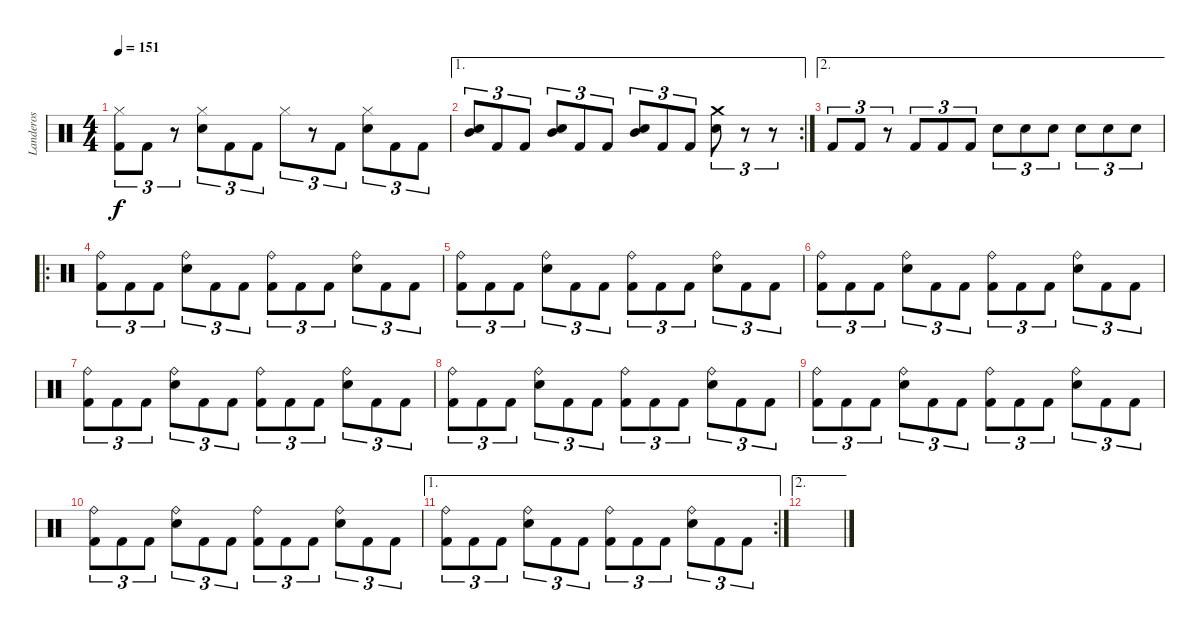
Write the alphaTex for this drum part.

\track ("Landeros" "Landeros") {instrument percussion}
\staff {score}
\articulation defaults
\ts (4 4)
\tempo 151
\clef neutral
\ks c
("Kick (hit) 2" "Hi-Hat (closed)").8{tu (3 2) dy f} "Kick (hit) 2".8{tu (3 2)} r.8{tu (3 2)} ("Electric Snare (hit)" "Hi-Hat (closed)").8{tu (3 2)} "Kick (hit) 2".8{tu (3 2)} "Kick (hit) 2".8{tu (3 2)} "Hi-Hat (closed)".8{tu (3 2)} r.8{tu (3 2)} "Kick (hit) 2".8{tu (3 2)} ("Electric Snare (hit)" "Hi-Hat (closed)").8{tu (3 2)} "Kick (hit) 2".8{tu (3 2)} "Kick (hit) 2".8{tu (3 2)} |
\ae 1
\rc 2
("Electric Snare (hit)" "Mid Tom (hit)").8{tu (3 2)} "Kick (hit) 2".8{tu (3 2)} "Kick (hit) 2".8{tu (3 2)} ("Electric Snare (hit)" "Mid Tom (hit)").8{tu (3 2)} "Kick (hit) 2".8{tu (3 2)} "Kick (hit) 2".8{tu (3 2)} ("Electric Snare (hit)" "Mid Tom (hit)").8{tu (3 2)} "Kick (hit) 2".8{tu (3 2)} "Kick (hit) 2".8{tu (3 2)} ("Electric Snare (hit)" "Crash medium (hit)").8{tu (3 2)} r.8{tu (3 2)} r.8{tu (3 2)} |
\ae 2 "Kick (hit) 2".8{tu (3 2)} "Kick (hit) 2".8{tu (3 2)}
r.8{tu (3 2)} "Kick (hit) 2".8{tu (3 2)} "Kick (hit) 2".8{tu (3 2)} "Kick (hit) 2".8{tu (3 2)} "Electric Snare (hit)".8{tu (3 2)} "Electric Snare (hit)".8{tu (3 2)} "Electric Snare (hit)".8{tu (3 2)} "Electric Snare (hit)".8{tu (3 2)} "Electric Snare (hit)".8{tu (3 2)} "Electric Snare (hit)".8{tu (3 2)} |
\ro
("Kick (hit) 2" "Ride (bell)").8{tu (3 2)} "Kick (hit) 2".8{tu (3 2)} "Kick (hit) 2".8{tu (3 2)} ("Electric Snare (hit)" "Ride (bell)").8{tu (3 2)} "Kick (hit) 2".8{tu (3 2)} "Kick (hit) 2".8{tu (3 2)} ("Kick (hit) 2" "Ride (bell)").8{tu (3 2)} "Kick (hit) 2".8{tu (3 2)} "Kick (hit) 2".8{tu (3 2)} ("Electric Snare (hit)" "Ride (bell)").8{tu (3 2)} "Kick (hit) 2".8{tu (3 2)} "Kick (hit) 2".8{tu (3 2)} |
("Kick (hit) 2" "Ride (bell)").8{tu (3 2)} "Kick (hit) 2".8{tu (3 2)} "Kick (hit) 2".8{tu (3 2)} ("Electric Snare (hit)" "Ride (bell)").8{tu (3 2)} "Kick (hit) 2".8{tu (3 2)} "Kick (hit) 2".8{tu (3 2)} ("Kick (hit) 2" "Ride (bell)").8{tu (3 2)} "Kick (hit) 2".8{tu (3 2)} "Kick (hit) 2".8{tu (3 2)} ("Electric Snare (hit)" "Ride (bell)").8{tu (3 2)} "Kick (hit) 2".8{tu (3 2)} "Kick (hit) 2".8{tu (3 2)} |
("Kick (hit) 2" "Ride (bell)").8{tu (3 2)} "Kick (hit) 2".8{tu (3 2)} "Kick (hit) 2".8{tu (3 2)} ("Electric Snare (hit)" "Ride (bell)").8{tu (3 2)} "Kick (hit) 2".8{tu (3 2)} "Kick (hit) 2".8{tu (3 2)} ("Kick (hit) 2" "Ride (bell)").8{tu (3 2)} "Kick (hit) 2".8{tu (3 2)} "Kick (hit) 2".8{tu (3 2)} ("Electric Snare (hit)" "Ride (bell)").8{tu (3 2)} "Kick (hit) 2".8{tu (3 2)} "Kick (hit) 2".8{tu (3 2)} |
("Kick (hit) 2" "Ride (bell)").8{tu (3 2)} "Kick (hit) 2".8{tu (3 2)} "Kick (hit) 2".8{tu (3 2)} ("Electric Snare (hit)" "Ride (bell)").8{tu (3 2)} "Kick (hit) 2".8{tu (3 2)} "Kick (hit) 2".8{tu (3 2)} ("Kick (hit) 2" "Ride (bell)").8{tu (3 2)} "Kick (hit) 2".8{tu (3 2)} "Kick (hit) 2".8{tu (3 2)} ("Electric Snare (hit)" "Ride (bell)").8{tu (3 2)} "Kick (hit) 2".8{tu (3 2)} "Kick (hit) 2".8{tu (3 2)} |
("Kick (hit) 2" "Ride (bell)").8{tu (3 2)} "Kick (hit) 2".8{tu (3 2)} "Kick (hit) 2".8{tu (3 2)} ("Electric Snare (hit)" "Ride (bell)").8{tu (3 2)} "Kick (hit) 2".8{tu (3 2)} "Kick (hit) 2".8{tu (3 2)} ("Kick (hit) 2" "Ride (bell)").8{tu (3 2)} "Kick (hit) 2".8{tu (3 2)} "Kick (hit) 2".8{tu (3 2)} ("Electric Snare (hit)" "Ride (bell)").8{tu (3 2)} "Kick (hit) 2".8{tu (3 2)} "Kick (hit) 2".8{tu (3 2)} |
("Kick (hit) 2" "Ride (bell)").8{tu (3 2)} "Kick (hit) 2".8{tu (3 2)} "Kick (hit) 2".8{tu (3 2)} ("Electric Snare (hit)" "Ride (bell)").8{tu (3 2)} "Kick (hit) 2".8{tu (3 2)} "Kick (hit) 2".8{tu (3 2)} ("Kick (hit) 2" "Ride (bell)").8{tu (3 2)} "Kick (hit) 2".8{tu (3 2)} "Kick (hit) 2".8{tu (3 2)} ("Electric Snare (hit)" "Ride (bell)").8{tu (3 2)} "Kick (hit) 2".8{tu (3 2)} "Kick (hit) 2".8{tu (3 2)} |
("Kick (hit) 2" "Ride (bell)").8{tu (3 2)} "Kick (hit) 2".8{tu (3 2)} "Kick (hit) 2".8{tu (3 2)} ("Electric Snare (hit)" "Ride (bell)").8{tu (3 2)} "Kick (hit) 2".8{tu (3 2)} "Kick (hit) 2".8{tu (3 2)} ("Kick (hit) 2" "Ride (bell)").8{tu (3 2)} "Kick (hit) 2".8{tu (3 2)} "Kick (hit) 2".8{tu (3 2)} ("Electric Snare (hit)" "Ride (bell)").8{tu (3 2)} "Kick (hit) 2".8{tu (3 2)} "Kick (hit) 2".8{tu (3 2)} |
\ae 1
\rc 2
("Kick (hit) 2" "Ride (bell)").8{tu (3 2)} "Kick (hit) 2".8{tu (3 2)} "Kick (hit) 2".8{tu (3 2)} ("Electric Snare (hit)" "Ride (bell)").8{tu (3 2)} "Kick (hit) 2".8{tu (3 2)} "Kick (hit) 2".8{tu (3 2)} ("Kick (hit) 2" "Ride (bell)").8{tu (3 2)} "Kick (hit) 2".8{tu (3 2)} "Kick (hit) 2".8{tu (3 2)} ("Electric Snare (hit)" "Ride (bell)").8{tu (3 2)} "Kick (hit) 2".8{tu (3 2)} "Kick (hit) 2".8{tu (3 2)} |
\ae 2
